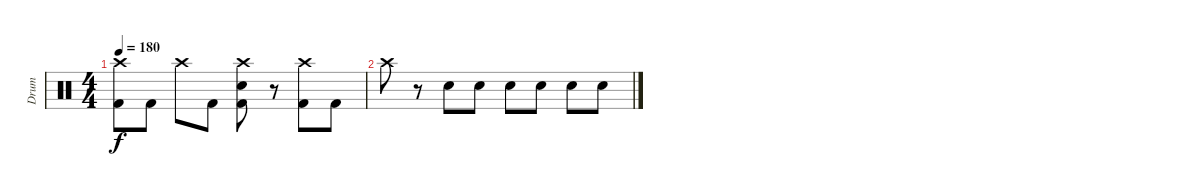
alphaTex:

\track ("Drum" "Drum") {instrument percussion}
\staff {score}
\articulation defaults
\ts (4 4)
\tempo 180
\clef neutral
\ks c
("Crash high (hit)" "Kick (hit) 2").8{dy f} "Kick (hit) 2".8 "Crash high (hit)".8 "Kick (hit) 2".8 ("Crash high (hit)" "Electric Snare (hit)" "Kick (hit) 2").8 r.8 ("Crash high (hit)" "Kick (hit) 2").8 "Kick (hit) 2".8 |
"Crash high (hit)".8 r.8 "Electric Snare (hit)".8 "Electric Snare (hit)".8 "Electric Snare (hit)".8 "Electric Snare (hit)".8 "Electric Snare (hit)".8 "Electric Snare (hit)".8
